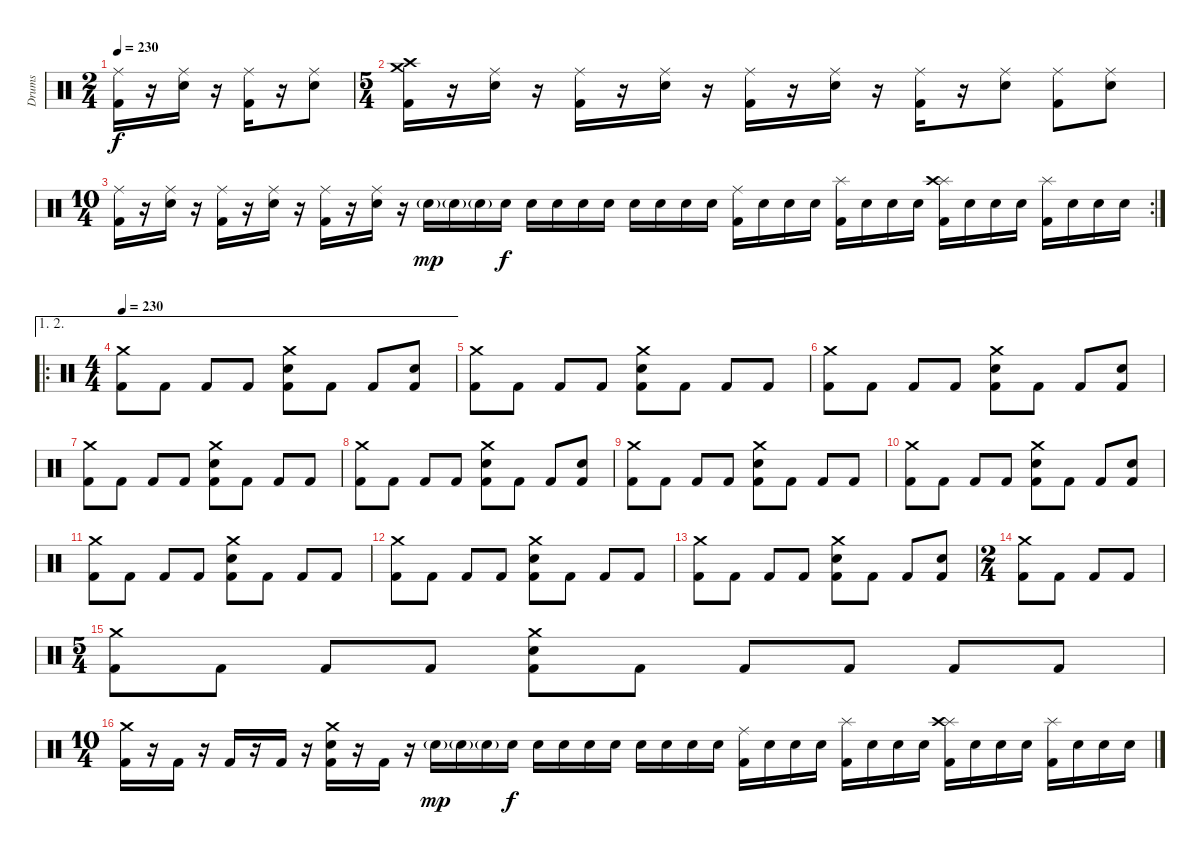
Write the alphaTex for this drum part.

\track ("Drums" "Drums") {instrument percussion}
\staff {score}
\articulation defaults
\ts (2 4)
\tempo 230
\clef neutral
\ks c
("Ride (middle)" "Kick (hit) 2").16{dy f} r.16 ("Ride (middle)" "Electric Snare (hit)").16 r.16 ("Ride (middle)" "Kick (hit) 2").16 r.16 ("Ride (middle)" "Electric Snare (hit)").8 |
\ts (5 4)
("Crash medium (hit)" "Crash high (hit)" "Kick (hit) 2").16 r.16 ("Ride (middle)" "Electric Snare (hit)").16 r.16 ("Ride (middle)" "Kick (hit) 2").16 r.16 ("Ride (middle)" "Electric Snare (hit)").16 r.16 ("Ride (middle)" "Kick (hit) 2").16 r.16 ("Ride (middle)" "Electric Snare (hit)").16 r.16 ("Ride (middle)" "Kick (hit) 2").16 r.16 ("Ride (middle)" "Electric Snare (hit)").8 ("Ride (middle)" "Kick (hit) 2").8 ("Ride (middle)" "Electric Snare (hit)").8 |
\rc 2
\ts (10 4)
("Ride (middle)" "Kick (hit) 2").16 r.16 ("Ride (middle)" "Electric Snare (hit)").16 r.16 ("Ride (middle)" "Kick (hit) 2").16 r.16 ("Ride (middle)" "Electric Snare (hit)").16 r.16 ("Ride (middle)" "Kick (hit) 2").16 r.16 ("Ride (middle)" "Electric Snare (hit)").16 r.16 "Electric Snare (hit)"{g}.16{dy mp} "Electric Snare (hit)"{g}.16 "Electric Snare (hit)"{g}.16 "Electric Snare (hit)".16{dy f} "Electric Snare (hit)".16 "Electric Snare (hit)".16 "Electric Snare (hit)".16 "Electric Snare (hit)".16 "Electric Snare (hit)".16 "Electric Snare (hit)".16 "Electric Snare (hit)".16 "Electric Snare (hit)".16 ("Ride (middle)" "Kick (hit) 2").16 "Snare (hit)".16 "Snare (hit)".16 "Snare (hit)".16 ("Splash (hit)" "Kick (hit) 2").16 "Snare (hit)".16 "Snare (hit)".16 "Snare (hit)".16 ("Splash (hit)" "Crash high (hit)" "Kick (hit) 2").16 "Snare (hit)".16 "Snare (hit)".16 "Snare (hit)".16 ("Splash (hit)" "Kick (hit) 2").16 "Snare (hit)".16 "Snare (hit)".16 "Snare (hit)".16 |
\ae (1 2)
\ro
\ts (4 4)
\tempo 240
\tempo 230
("Crash medium (hit)" "Kick (hit) 2").8 "Kick (hit) 2".8 "Kick (hit) 2".8 "Kick (hit) 2".8 ("Crash medium (hit)" "Electric Snare (hit)" "Kick (hit) 2").8 "Kick (hit) 2".8 "Kick (hit) 2".8 ("Electric Snare (hit)" "Kick (hit) 2").8 |
("Crash medium (hit)" "Kick (hit) 2").8 "Kick (hit) 2".8 "Kick (hit) 2".8 "Kick (hit) 2".8 ("Crash medium (hit)" "Electric Snare (hit)" "Kick (hit) 2").8 "Kick (hit) 2".8 "Kick (hit) 2".8 "Kick (hit) 2".8 |
("Crash medium (hit)" "Kick (hit) 2").8 "Kick (hit) 2".8 "Kick (hit) 2".8 "Kick (hit) 2".8 ("Crash medium (hit)" "Electric Snare (hit)" "Kick (hit) 2").8 "Kick (hit) 2".8 "Kick (hit) 2".8 ("Electric Snare (hit)" "Kick (hit) 2").8 |
("Crash medium (hit)" "Kick (hit) 2").8 "Kick (hit) 2".8 "Kick (hit) 2".8 "Kick (hit) 2".8 ("Crash medium (hit)" "Electric Snare (hit)" "Kick (hit) 2").8 "Kick (hit) 2".8 "Kick (hit) 2".8 "Kick (hit) 2".8 |
("Crash medium (hit)" "Kick (hit) 2").8 "Kick (hit) 2".8 "Kick (hit) 2".8 "Kick (hit) 2".8 ("Crash medium (hit)" "Electric Snare (hit)" "Kick (hit) 2").8 "Kick (hit) 2".8 "Kick (hit) 2".8 ("Electric Snare (hit)" "Kick (hit) 2").8 |
("Crash medium (hit)" "Kick (hit) 2").8 "Kick (hit) 2".8 "Kick (hit) 2".8 "Kick (hit) 2".8 ("Crash medium (hit)" "Electric Snare (hit)" "Kick (hit) 2").8 "Kick (hit) 2".8 "Kick (hit) 2".8 "Kick (hit) 2".8 |
("Crash medium (hit)" "Kick (hit) 2").8 "Kick (hit) 2".8 "Kick (hit) 2".8 "Kick (hit) 2".8 ("Crash medium (hit)" "Electric Snare (hit)" "Kick (hit) 2").8 "Kick (hit) 2".8 "Kick (hit) 2".8 ("Electric Snare (hit)" "Kick (hit) 2").8 |
("Crash medium (hit)" "Kick (hit) 2").8 "Kick (hit) 2".8 "Kick (hit) 2".8 "Kick (hit) 2".8 ("Crash medium (hit)" "Electric Snare (hit)" "Kick (hit) 2").8 "Kick (hit) 2".8 "Kick (hit) 2".8 "Kick (hit) 2".8 |
("Crash medium (hit)" "Kick (hit) 2").8 "Kick (hit) 2".8 "Kick (hit) 2".8 "Kick (hit) 2".8 ("Crash medium (hit)" "Electric Snare (hit)" "Kick (hit) 2").8 "Kick (hit) 2".8 "Kick (hit) 2".8 "Kick (hit) 2".8 |
("Crash medium (hit)" "Kick (hit) 2").8 "Kick (hit) 2".8 "Kick (hit) 2".8 "Kick (hit) 2".8 ("Crash medium (hit)" "Electric Snare (hit)" "Kick (hit) 2").8 "Kick (hit) 2".8 "Kick (hit) 2".8 ("Electric Snare (hit)" "Kick (hit) 2").8 |
\ts (2 4)
("Crash medium (hit)" "Kick (hit) 2").8 "Kick (hit) 2".8 "Kick (hit) 2".8 "Kick (hit) 2".8 |
\ts (5 4)
("Crash medium (hit)" "Kick (hit) 2").8 "Kick (hit) 2".8 "Kick (hit) 2".8 "Kick (hit) 2".8 ("Crash medium (hit)" "Electric Snare (hit)" "Kick (hit) 2").8 "Kick (hit) 2".8 "Kick (hit) 2".8 "Kick (hit) 2".8 "Kick (hit) 2".8 "Kick (hit) 2".8 |
\ts (10 4)
("Crash medium (hit)" "Kick (hit) 2").16 r.16 "Kick (hit) 2".16 r.16 "Kick (hit) 2".16 r.16 "Kick (hit) 2".16 r.16 ("Crash medium (hit)" "Electric Snare (hit)" "Kick (hit) 2").16 r.16 "Kick (hit) 2".16 r.16 "Electric Snare (hit)"{g}.16{dy mp} "Electric Snare (hit)"{g}.16 "Electric Snare (hit)"{g}.16 "Electric Snare (hit)".16{dy f} "Electric Snare (hit)".16 "Electric Snare (hit)".16 "Electric Snare (hit)".16 "Electric Snare (hit)".16 "Electric Snare (hit)".16 "Electric Snare (hit)".16 "Electric Snare (hit)".16 "Electric Snare (hit)".16 ("Ride (middle)" "Kick (hit) 2").16 "Snare (hit)".16 "Snare (hit)".16 "Snare (hit)".16 ("Splash (hit)" "Kick (hit) 2").16 "Snare (hit)".16 "Snare (hit)".16 "Snare (hit)".16 ("Splash (hit)" "Crash high (hit)" "Kick (hit) 2").16 "Snare (hit)".16 "Snare (hit)".16 "Snare (hit)".16 ("Splash (hit)" "Kick (hit) 2").16 "Snare (hit)".16 "Snare (hit)".16 "Snare (hit)".16
